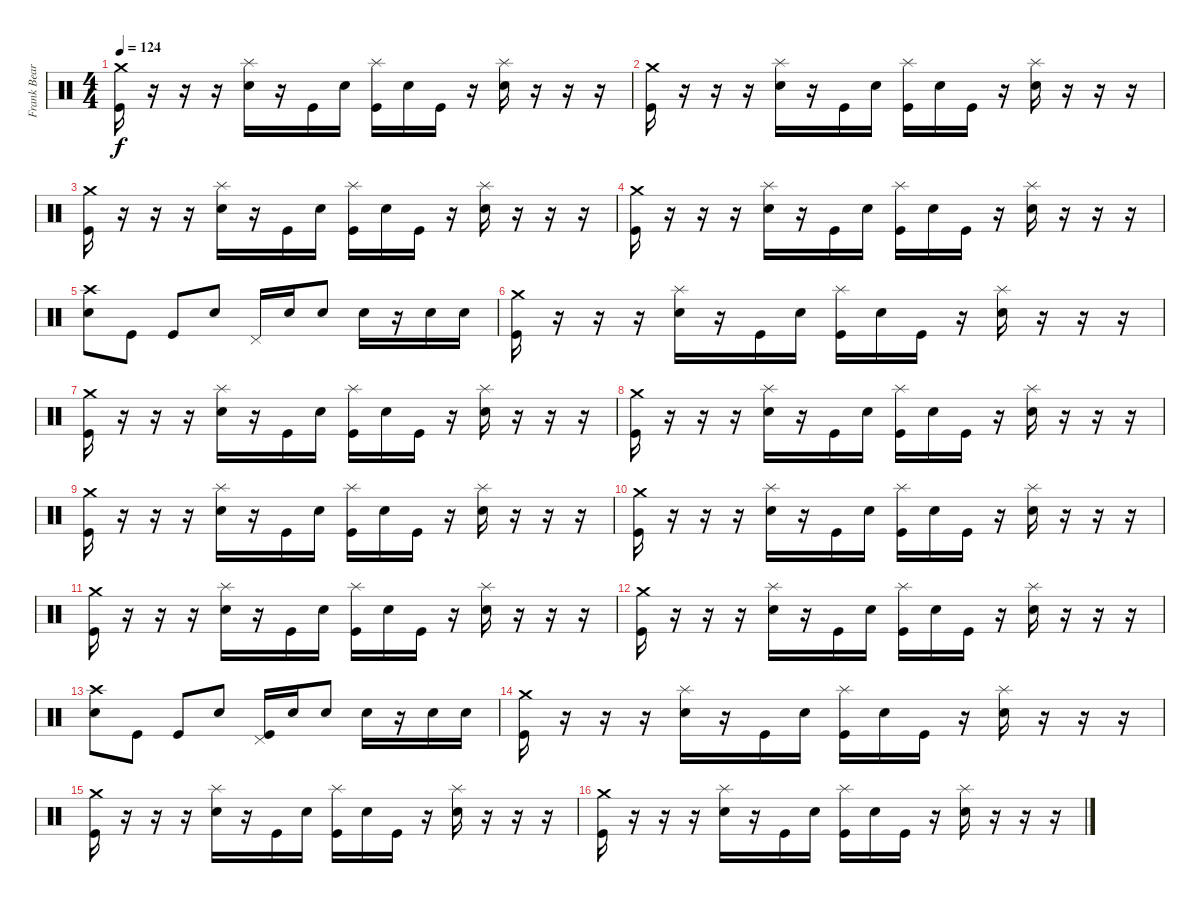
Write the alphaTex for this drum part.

\track ("Frank Beard" "Frank Bear") {instrument percussion}
\staff {score}
\articulation defaults
\ts (4 4)
\tempo 124
\clef neutral
\ks c
("Crash medium (hit)" "Kick (hit)").16{dy f} r.16 r.16 r.16 ("Splash (hit)" "Electric Snare (hit)").16 r.16 "Kick (hit)".16 "Electric Snare (hit)".16 ("Splash (hit)" "Kick (hit)").16 "Electric Snare (hit)".16 "Kick (hit)".16 r.16 ("Splash (hit)" "Electric Snare (hit)").16 r.16 r.16 r.16 |
("Crash medium (hit)" "Kick (hit)").16 r.16 r.16 r.16 ("Splash (hit)" "Electric Snare (hit)").16 r.16 "Kick (hit)".16 "Electric Snare (hit)".16 ("Splash (hit)" "Kick (hit)").16 "Electric Snare (hit)".16 "Kick (hit)".16 r.16 ("Splash (hit)" "Electric Snare (hit)").16 r.16 r.16 r.16 |
("Crash medium (hit)" "Kick (hit)").16 r.16 r.16 r.16 ("Splash (hit)" "Electric Snare (hit)").16 r.16 "Kick (hit)".16 "Electric Snare (hit)".16 ("Splash (hit)" "Kick (hit)").16 "Electric Snare (hit)".16 "Kick (hit)".16 r.16 ("Splash (hit)" "Electric Snare (hit)").16 r.16 r.16 r.16 |
("Crash medium (hit)" "Kick (hit)").16 r.16 r.16 r.16 ("Splash (hit)" "Electric Snare (hit)").16 r.16 "Kick (hit)".16 "Electric Snare (hit)".16 ("Splash (hit)" "Kick (hit)").16 "Electric Snare (hit)".16 "Kick (hit)".16 r.16 ("Splash (hit)" "Electric Snare (hit)").16 r.16 r.16 r.16 |
("Crash high (hit)" "Electric Snare (hit)").8 "Kick (hit)".8 "Kick (hit)".8 "Electric Snare (hit)".8 "Pedal Hi-Hat (hit)".16 "Electric Snare (hit)".16 "Electric Snare (hit)".8 "Electric Snare (hit)".16 r.16 "Electric Snare (hit)".16 "Electric Snare (hit)".16 |
("Crash medium (hit)" "Kick (hit)").16 r.16 r.16 r.16 ("Splash (hit)" "Electric Snare (hit)").16 r.16 "Kick (hit)".16 "Electric Snare (hit)".16 ("Splash (hit)" "Kick (hit)").16 "Electric Snare (hit)".16 "Kick (hit)".16 r.16 ("Splash (hit)" "Electric Snare (hit)").16 r.16 r.16 r.16 |
("Crash medium (hit)" "Kick (hit)").16 r.16 r.16 r.16 ("Splash (hit)" "Electric Snare (hit)").16 r.16 "Kick (hit)".16 "Electric Snare (hit)".16 ("Splash (hit)" "Kick (hit)").16 "Electric Snare (hit)".16 "Kick (hit)".16 r.16 ("Splash (hit)" "Electric Snare (hit)").16 r.16 r.16 r.16 |
("Crash medium (hit)" "Kick (hit)").16 r.16 r.16 r.16 ("Splash (hit)" "Electric Snare (hit)").16 r.16 "Kick (hit)".16 "Electric Snare (hit)".16 ("Splash (hit)" "Kick (hit)").16 "Electric Snare (hit)".16 "Kick (hit)".16 r.16 ("Splash (hit)" "Electric Snare (hit)").16 r.16 r.16 r.16 |
("Crash medium (hit)" "Kick (hit)").16 r.16 r.16 r.16 ("Splash (hit)" "Electric Snare (hit)").16 r.16 "Kick (hit)".16 "Electric Snare (hit)".16 ("Splash (hit)" "Kick (hit)").16 "Electric Snare (hit)".16 "Kick (hit)".16 r.16 ("Splash (hit)" "Electric Snare (hit)").16 r.16 r.16 r.16 |
("Crash medium (hit)" "Kick (hit)").16 r.16 r.16 r.16 ("Splash (hit)" "Electric Snare (hit)").16 r.16 "Kick (hit)".16 "Electric Snare (hit)".16 ("Splash (hit)" "Kick (hit)").16 "Electric Snare (hit)".16 "Kick (hit)".16 r.16 ("Splash (hit)" "Electric Snare (hit)").16 r.16 r.16 r.16 |
("Crash medium (hit)" "Kick (hit)").16 r.16 r.16 r.16 ("Splash (hit)" "Electric Snare (hit)").16 r.16 "Kick (hit)".16 "Electric Snare (hit)".16 ("Splash (hit)" "Kick (hit)").16 "Electric Snare (hit)".16 "Kick (hit)".16 r.16 ("Splash (hit)" "Electric Snare (hit)").16 r.16 r.16 r.16 |
("Crash medium (hit)" "Kick (hit)").16 r.16 r.16 r.16 ("Splash (hit)" "Electric Snare (hit)").16 r.16 "Kick (hit)".16 "Electric Snare (hit)".16 ("Splash (hit)" "Kick (hit)").16 "Electric Snare (hit)".16 "Kick (hit)".16 r.16 ("Splash (hit)" "Electric Snare (hit)").16 r.16 r.16 r.16 |
("Crash high (hit)" "Electric Snare (hit)").8 "Kick (hit)".8 "Kick (hit)".8 "Electric Snare (hit)".8 ("Pedal Hi-Hat (hit)" "Kick (hit)").16 "Electric Snare (hit)".16 "Electric Snare (hit)".8 "Electric Snare (hit)".16 r.16 "Electric Snare (hit)".16 "Electric Snare (hit)".16 |
("Crash medium (hit)" "Kick (hit)").16 r.16 r.16 r.16 ("Splash (hit)" "Electric Snare (hit)").16 r.16 "Kick (hit)".16 "Electric Snare (hit)".16 ("Splash (hit)" "Kick (hit)").16 "Electric Snare (hit)".16 "Kick (hit)".16 r.16 ("Splash (hit)" "Electric Snare (hit)").16 r.16 r.16 r.16 |
("Crash medium (hit)" "Kick (hit)").16 r.16 r.16 r.16 ("Splash (hit)" "Electric Snare (hit)").16 r.16 "Kick (hit)".16 "Electric Snare (hit)".16 ("Splash (hit)" "Kick (hit)").16 "Electric Snare (hit)".16 "Kick (hit)".16 r.16 ("Splash (hit)" "Electric Snare (hit)").16 r.16 r.16 r.16 |
("Crash medium (hit)" "Kick (hit)").16 r.16 r.16 r.16 ("Splash (hit)" "Electric Snare (hit)").16 r.16 "Kick (hit)".16 "Electric Snare (hit)".16 ("Splash (hit)" "Kick (hit)").16 "Electric Snare (hit)".16 "Kick (hit)".16 r.16 ("Splash (hit)" "Electric Snare (hit)").16 r.16 r.16 r.16
